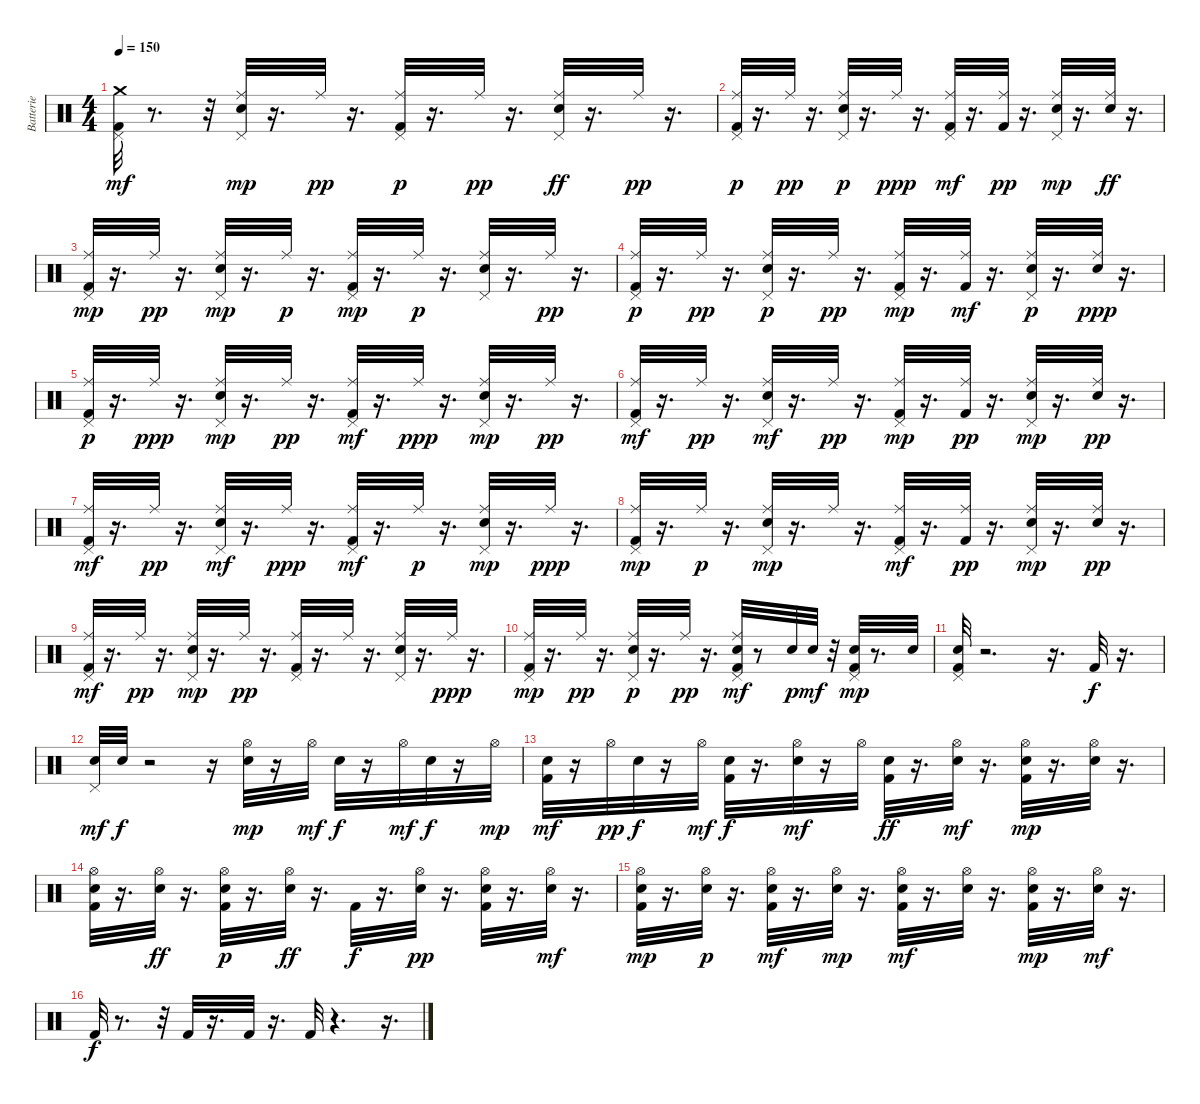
\track ("Batterie" "Batterie") {instrument percussion}
\staff {score}
\articulation defaults
\ts (4 4)
\tempo 150
\clef neutral
\ks c
("Pedal Hi-Hat (hit)" "Kick (hit) 2" "Crash medium (hit)").32{dy mf} r.8{d} r.32 ("Electric Snare (hit)" "Pedal Hi-Hat (hit)" "Ride (middle)").32{dy mp} r.16{d} "Ride (middle)".32{dy pp} r.16{d} ("Pedal Hi-Hat (hit)" "Kick (hit) 2" "Ride (middle)").32{dy p} r.16{d} "Ride (middle)".32{dy pp} r.16{d} ("Pedal Hi-Hat (hit)" "Ride (middle)" "Electric Snare (hit)").32{dy ff} r.16{d} "Ride (middle)".32{dy pp} r.16{d} |
("Ride (middle)" "Pedal Hi-Hat (hit)" "Kick (hit) 2").32{dy p} r.16{d} "Ride (middle)".32{dy pp} r.16{d} ("Pedal Hi-Hat (hit)" "Electric Snare (hit)" "Ride (middle)").32{dy p} r.16{d} "Ride (middle)".32{dy ppp} r.16{d} ("Ride (middle)" "Kick (hit) 2" "Pedal Hi-Hat (hit)").32{dy mf} r.16{d} ("Ride (middle)" "Kick (hit) 2").32{dy pp} r.16{d} ("Electric Snare (hit)" "Pedal Hi-Hat (hit)" "Ride (middle)").32{dy mp} r.16{d} ("Ride (middle)" "Electric Snare (hit)").32{dy ff} r.16{d} |
("Kick (hit) 2" "Ride (middle)" "Pedal Hi-Hat (hit)").32{dy mp} r.16{d} "Ride (middle)".32{dy pp} r.16{d} ("Electric Snare (hit)" "Pedal Hi-Hat (hit)" "Ride (middle)").32{dy mp} r.16{d} "Ride (middle)".32{dy p} r.16{d} ("Pedal Hi-Hat (hit)" "Kick (hit) 2" "Ride (middle)").32{dy mp} r.16{d} "Ride (middle)".32{dy p} r.16{d} ("Pedal Hi-Hat (hit)" "Electric Snare (hit)" "Ride (middle)").32 r.16{d} "Ride (middle)".32{dy pp} r.16{d} |
("Pedal Hi-Hat (hit)" "Kick (hit) 2" "Ride (middle)").32{dy p} r.16{d} "Ride (middle)".32{dy pp} r.16{d} ("Electric Snare (hit)" "Pedal Hi-Hat (hit)" "Ride (middle)").32{dy p} r.16{d} "Ride (middle)".32{dy pp} r.16{d} ("Kick (hit) 2" "Pedal Hi-Hat (hit)" "Ride (middle)").32{dy mp} r.16{d} ("Ride (middle)" "Kick (hit) 2").32{dy mf} r.16{d} ("Electric Snare (hit)" "Pedal Hi-Hat (hit)" "Ride (middle)").32{dy p} r.16{d} ("Electric Snare (hit)" "Ride (middle)").32{dy ppp} r.16{d} |
("Kick (hit) 2" "Pedal Hi-Hat (hit)" "Ride (middle)").32{dy p} r.16{d} "Ride (middle)".32{dy ppp} r.16{d} ("Electric Snare (hit)" "Ride (middle)" "Pedal Hi-Hat (hit)").32{dy mp} r.16{d} "Ride (middle)".32{dy pp} r.16{d} ("Kick (hit) 2" "Ride (middle)" "Pedal Hi-Hat (hit)").32{dy mf} r.16{d} "Ride (middle)".32{dy ppp} r.16{d} ("Ride (middle)" "Electric Snare (hit)" "Pedal Hi-Hat (hit)").32{dy mp} r.16{d} "Ride (middle)".32{dy pp} r.16{d} |
("Kick (hit) 2" "Ride (middle)" "Pedal Hi-Hat (hit)").32{dy mf} r.16{d} "Ride (middle)".32{dy pp} r.16{d} ("Electric Snare (hit)" "Ride (middle)" "Pedal Hi-Hat (hit)").32{dy mf} r.16{d} "Ride (middle)".32{dy pp} r.16{d} ("Kick (hit) 2" "Pedal Hi-Hat (hit)" "Ride (middle)").32{dy mp} r.16{d} ("Kick (hit) 2" "Ride (middle)").32{dy pp} r.16{d} ("Electric Snare (hit)" "Pedal Hi-Hat (hit)" "Ride (middle)").32{dy mp} r.16{d} ("Electric Snare (hit)" "Ride (middle)").32{dy pp} r.16{d} |
("Kick (hit) 2" "Pedal Hi-Hat (hit)" "Ride (middle)").32{dy mf} r.16{d} "Ride (middle)".32{dy pp} r.16{d} ("Pedal Hi-Hat (hit)" "Electric Snare (hit)" "Ride (middle)").32{dy mf} r.16{d} "Ride (middle)".32{dy ppp} r.16{d} ("Kick (hit) 2" "Pedal Hi-Hat (hit)" "Ride (middle)").32{dy mf} r.16{d} "Ride (middle)".32{dy p} r.16{d} ("Electric Snare (hit)" "Pedal Hi-Hat (hit)" "Ride (middle)").32{dy mp} r.16{d} "Ride (middle)".32{dy ppp} r.16{d} |
("Pedal Hi-Hat (hit)" "Ride (middle)" "Kick (hit) 2").32{dy mp} r.16{d} "Ride (middle)".32{dy p} r.16{d} ("Electric Snare (hit)" "Pedal Hi-Hat (hit)" "Ride (middle)").32{dy mp} r.16{d} "Ride (middle)".32 r.16{d} ("Pedal Hi-Hat (hit)" "Kick (hit) 2" "Ride (middle)").32{dy mf} r.16{d} ("Kick (hit) 2" "Ride (middle)").32{dy pp} r.16{d} ("Electric Snare (hit)" "Pedal Hi-Hat (hit)" "Ride (middle)").32{dy mp} r.16{d} ("Electric Snare (hit)" "Ride (middle)").32{dy pp} r.16{d} |
("Kick (hit) 2" "Pedal Hi-Hat (hit)" "Ride (middle)").32{dy mf} r.16{d} "Ride (middle)".32{dy pp} r.16{d} ("Electric Snare (hit)" "Pedal Hi-Hat (hit)" "Ride (middle)").32{dy mp} r.16{d} "Ride (middle)".32{dy pp} r.16{d} ("Kick (hit) 2" "Pedal Hi-Hat (hit)" "Ride (middle)").32 r.16{d} "Ride (middle)".32 r.16{d} ("Electric Snare (hit)" "Pedal Hi-Hat (hit)" "Ride (middle)").32 r.16{d} "Ride (middle)".32{dy ppp} r.16{d} |
("Kick (hit) 2" "Ride (middle)" "Pedal Hi-Hat (hit)").32{dy mp} r.16{d} "Ride (middle)".32{dy pp} r.16{d} ("Electric Snare (hit)" "Pedal Hi-Hat (hit)" "Ride (middle)").32{dy p} r.16{d} "Ride (middle)".32{dy pp} r.16{d} ("Electric Snare (hit)" "Ride (middle)" "Pedal Hi-Hat (hit)" "Kick (hit) 2").32{dy mf} r.8 "Electric Snare (hit)".32{dy p} "Electric Snare (hit)".32{dy mf} r.32 ("Electric Snare (hit)" "Kick (hit) 2" "Pedal Hi-Hat (hit)").32{dy mp} r.8{d} "Electric Snare (hit)".32 |
("Pedal Hi-Hat (hit)" "Kick (hit) 2" "Electric Snare (hit)").32 r.2{d} r.16{d} "Kick (hit) 2".32{dy f} r.16{d} |
("Electric Snare (hit)" "Pedal Hi-Hat (hit)").32{dy mf} "Electric Snare (hit)".32{dy f} r.2 r.16 ("Hi-Hat (open)" "Electric Snare (hit)").32{dy mp} r.16 "Hi-Hat (open)".32{dy mf} "Electric Snare (hit)".32{dy f} r.16 "Hi-Hat (open)".32{dy mf} "Electric Snare (hit)".32{dy f} r.16 "Hi-Hat (open)".32{dy mp} |
("Kick (hit) 2" "Electric Snare (hit)").32{dy mf} r.16 "Hi-Hat (open)".32{dy pp} "Electric Snare (hit)".32{dy f} r.16 "Hi-Hat (open)".32{dy mf} ("Kick (hit) 2" "Electric Snare (hit)").32{dy f} r.16{d} ("Hi-Hat (open)" "Electric Snare (hit)").32{dy mf} r.16 "Hi-Hat (open)".32 ("Kick (hit) 2" "Electric Snare (hit)").32{dy ff} r.16{d} ("Hi-Hat (open)" "Electric Snare (hit)").32{dy mf} r.16{d} ("Hi-Hat (open)" "Kick (hit) 2" "Electric Snare (hit)").32{dy mp} r.16{d} ("Hi-Hat (open)" "Electric Snare (hit)").32 r.16{d} |
("Hi-Hat (open)" "Kick (hit) 2" "Electric Snare (hit)").32 r.16{d} ("Hi-Hat (open)" "Electric Snare (hit)").32{dy ff} r.16{d} ("Hi-Hat (open)" "Electric Snare (hit)" "Kick (hit) 2").32{dy p} r.16{d} ("Hi-Hat (open)" "Electric Snare (hit)").32{dy ff} r.16{d} "Kick (hit) 2".32{dy f} r.16{d} ("Hi-Hat (open)" "Electric Snare (hit)").32{dy pp} r.16{d} ("Kick (hit) 2" "Electric Snare (hit)" "Hi-Hat (open)").32 r.16{d} ("Hi-Hat (open)" "Electric Snare (hit)").32{dy mf} r.16{d} |
("Kick (hit) 2" "Hi-Hat (open)" "Electric Snare (hit)").32{dy mp} r.16{d} ("Hi-Hat (open)" "Electric Snare (hit)").32{dy p} r.16{d} ("Hi-Hat (open)" "Electric Snare (hit)" "Kick (hit) 2").32{dy mf} r.16{d} ("Hi-Hat (open)" "Electric Snare (hit)").32{dy mp} r.16{d} ("Hi-Hat (open)" "Kick (hit) 2" "Electric Snare (hit)").32{dy mf} r.16{d} ("Hi-Hat (open)" "Electric Snare (hit)").32 r.16{d} ("Electric Snare (hit)" "Hi-Hat (open)" "Kick (hit) 2").32{dy mp} r.16{d} ("Electric Snare (hit)" "Hi-Hat (open)").32{dy mf} r.16{d} |
"Kick (hit) 2".32{dy f} r.8{d} r.32 "Kick (hit) 2".32 r.16{d} "Kick (hit) 2".32 r.16{d} "Kick (hit) 2".32 r.4{d} r.16{d}
